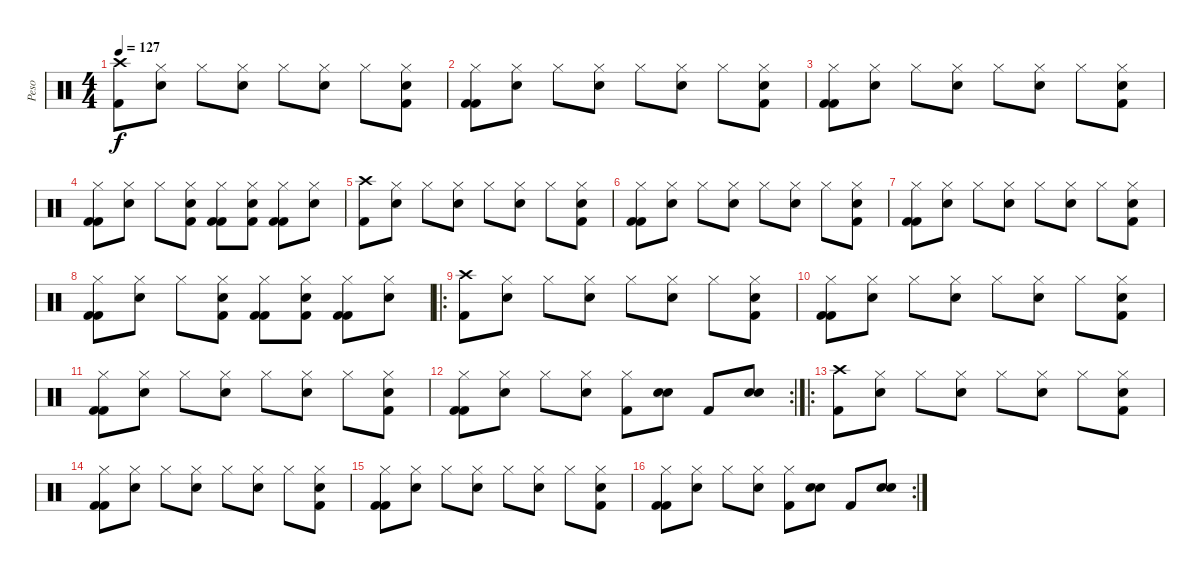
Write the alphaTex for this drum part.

\track ("Peso" "Peso") {instrument percussion}
\staff {score}
\articulation defaults
\ts (4 4)
\tempo 127
\clef neutral
\ks c
("Crash high (hit)" "Kick (hit) 2").8{dy f} ("Hi-Hat (closed)" "Snare (hit) 2").8 "Hi-Hat (closed)".8 ("Hi-Hat (closed)" "Snare (hit) 2").8 "Hi-Hat (closed)".8 ("Hi-Hat (closed)" "Snare (hit) 2").8 "Hi-Hat (closed)".8 ("Hi-Hat (closed)" "Snare (hit) 2" "Kick (hit) 2").8 |
("Hi-Hat (closed)" "Kick (hit) 2" "Kick (hit) 2").8 ("Hi-Hat (closed)" "Snare (hit) 2").8 "Hi-Hat (closed)".8 ("Hi-Hat (closed)" "Snare (hit) 2").8 "Hi-Hat (closed)".8 ("Hi-Hat (closed)" "Snare (hit) 2").8 "Hi-Hat (closed)".8 ("Hi-Hat (closed)" "Snare (hit) 2" "Kick (hit) 2").8 |
("Hi-Hat (closed)" "Kick (hit) 2" "Kick (hit) 2").8 ("Hi-Hat (closed)" "Snare (hit) 2").8 "Hi-Hat (closed)".8 ("Hi-Hat (closed)" "Snare (hit) 2").8 "Hi-Hat (closed)".8 ("Hi-Hat (closed)" "Snare (hit) 2").8 "Hi-Hat (closed)".8 ("Hi-Hat (closed)" "Snare (hit) 2" "Kick (hit) 2").8 |
("Hi-Hat (closed)" "Kick (hit) 2" "Kick (hit) 2").8 ("Hi-Hat (closed)" "Snare (hit) 2").8 "Hi-Hat (closed)".8 ("Hi-Hat (closed)" "Snare (hit) 2" "Kick (hit) 2").8 ("Hi-Hat (closed)" "Kick (hit) 2" "Kick (hit) 2").8 ("Hi-Hat (closed)" "Snare (hit) 2" "Kick (hit) 2").8 ("Hi-Hat (closed)" "Kick (hit) 2" "Kick (hit) 2").8 ("Hi-Hat (closed)" "Snare (hit) 2").8 |
("Crash high (hit)" "Kick (hit) 2").8 ("Hi-Hat (closed)" "Snare (hit) 2").8 "Hi-Hat (closed)".8 ("Hi-Hat (closed)" "Snare (hit) 2").8 "Hi-Hat (closed)".8 ("Hi-Hat (closed)" "Snare (hit) 2").8 "Hi-Hat (closed)".8 ("Hi-Hat (closed)" "Snare (hit) 2" "Kick (hit) 2").8 |
("Hi-Hat (closed)" "Kick (hit) 2" "Kick (hit) 2").8 ("Hi-Hat (closed)" "Snare (hit) 2").8 "Hi-Hat (closed)".8 ("Hi-Hat (closed)" "Snare (hit) 2").8 "Hi-Hat (closed)".8 ("Hi-Hat (closed)" "Snare (hit) 2").8 "Hi-Hat (closed)".8 ("Hi-Hat (closed)" "Snare (hit) 2" "Kick (hit) 2").8 |
("Hi-Hat (closed)" "Kick (hit) 2" "Kick (hit) 2").8 ("Hi-Hat (closed)" "Snare (hit) 2").8 "Hi-Hat (closed)".8 ("Hi-Hat (closed)" "Snare (hit) 2").8 "Hi-Hat (closed)".8 ("Hi-Hat (closed)" "Snare (hit) 2").8 "Hi-Hat (closed)".8 ("Hi-Hat (closed)" "Snare (hit) 2" "Kick (hit) 2").8 |
("Hi-Hat (closed)" "Kick (hit) 2" "Kick (hit) 2").8 ("Hi-Hat (closed)" "Snare (hit) 2").8 "Hi-Hat (closed)".8 ("Hi-Hat (closed)" "Snare (hit) 2" "Kick (hit) 2").8 ("Hi-Hat (closed)" "Kick (hit) 2" "Kick (hit) 2").8 ("Hi-Hat (closed)" "Snare (hit) 2" "Kick (hit) 2").8 ("Hi-Hat (closed)" "Kick (hit) 2" "Kick (hit) 2").8 ("Hi-Hat (closed)" "Snare (hit) 2").8 |
\ro
("Crash high (hit)" "Kick (hit) 2").8 ("Hi-Hat (closed)" "Snare (hit) 2").8 "Hi-Hat (closed)".8 ("Hi-Hat (closed)" "Snare (hit) 2").8 "Hi-Hat (closed)".8 ("Hi-Hat (closed)" "Snare (hit) 2").8 "Hi-Hat (closed)".8 ("Hi-Hat (closed)" "Snare (hit) 2" "Kick (hit) 2").8 |
("Hi-Hat (closed)" "Kick (hit) 2" "Kick (hit) 2").8 ("Hi-Hat (closed)" "Snare (hit) 2").8 "Hi-Hat (closed)".8 ("Hi-Hat (closed)" "Snare (hit) 2").8 "Hi-Hat (closed)".8 ("Hi-Hat (closed)" "Snare (hit) 2").8 "Hi-Hat (closed)".8 ("Hi-Hat (closed)" "Snare (hit) 2" "Kick (hit) 2").8 |
("Hi-Hat (closed)" "Kick (hit) 2" "Kick (hit) 2").8 ("Hi-Hat (closed)" "Snare (hit) 2").8 "Hi-Hat (closed)".8 ("Hi-Hat (closed)" "Snare (hit) 2").8 "Hi-Hat (closed)".8 ("Hi-Hat (closed)" "Snare (hit) 2").8 "Hi-Hat (closed)".8 ("Hi-Hat (closed)" "Snare (hit) 2" "Kick (hit) 2").8 |
\rc 2
("Hi-Hat (closed)" "Kick (hit) 2" "Kick (hit) 2").8 ("Hi-Hat (closed)" "Snare (hit) 2").8 "Hi-Hat (closed)".8 ("Hi-Hat (closed)" "Snare (hit) 2").8 ("Hi-Hat (closed)" "Kick (hit) 2").8 ("Snare (hit) 2" "Snare (hit) 2").8 "Kick (hit) 2".8 ("Snare (hit) 2" "Snare (hit) 2").8 |
\ro
("Crash high (hit)" "Kick (hit) 2").8 ("Hi-Hat (closed)" "Snare (hit) 2").8 "Hi-Hat (closed)".8 ("Hi-Hat (closed)" "Snare (hit) 2").8 "Hi-Hat (closed)".8 ("Hi-Hat (closed)" "Snare (hit) 2").8 "Hi-Hat (closed)".8 ("Hi-Hat (closed)" "Snare (hit) 2" "Kick (hit) 2").8 |
("Hi-Hat (closed)" "Kick (hit) 2" "Kick (hit) 2").8 ("Hi-Hat (closed)" "Snare (hit) 2").8 "Hi-Hat (closed)".8 ("Hi-Hat (closed)" "Snare (hit) 2").8 "Hi-Hat (closed)".8 ("Hi-Hat (closed)" "Snare (hit) 2").8 "Hi-Hat (closed)".8 ("Hi-Hat (closed)" "Snare (hit) 2" "Kick (hit) 2").8 |
("Hi-Hat (closed)" "Kick (hit) 2" "Kick (hit) 2").8 ("Hi-Hat (closed)" "Snare (hit) 2").8 "Hi-Hat (closed)".8 ("Hi-Hat (closed)" "Snare (hit) 2").8 "Hi-Hat (closed)".8 ("Hi-Hat (closed)" "Snare (hit) 2").8 "Hi-Hat (closed)".8 ("Hi-Hat (closed)" "Snare (hit) 2" "Kick (hit) 2").8 |
\rc 2
("Hi-Hat (closed)" "Kick (hit) 2" "Kick (hit) 2").8 ("Hi-Hat (closed)" "Snare (hit) 2").8 "Hi-Hat (closed)".8 ("Hi-Hat (closed)" "Snare (hit) 2").8 ("Hi-Hat (closed)" "Kick (hit) 2").8 ("Snare (hit) 2" "Snare (hit) 2").8 "Kick (hit) 2".8 ("Snare (hit) 2" "Snare (hit) 2").8
